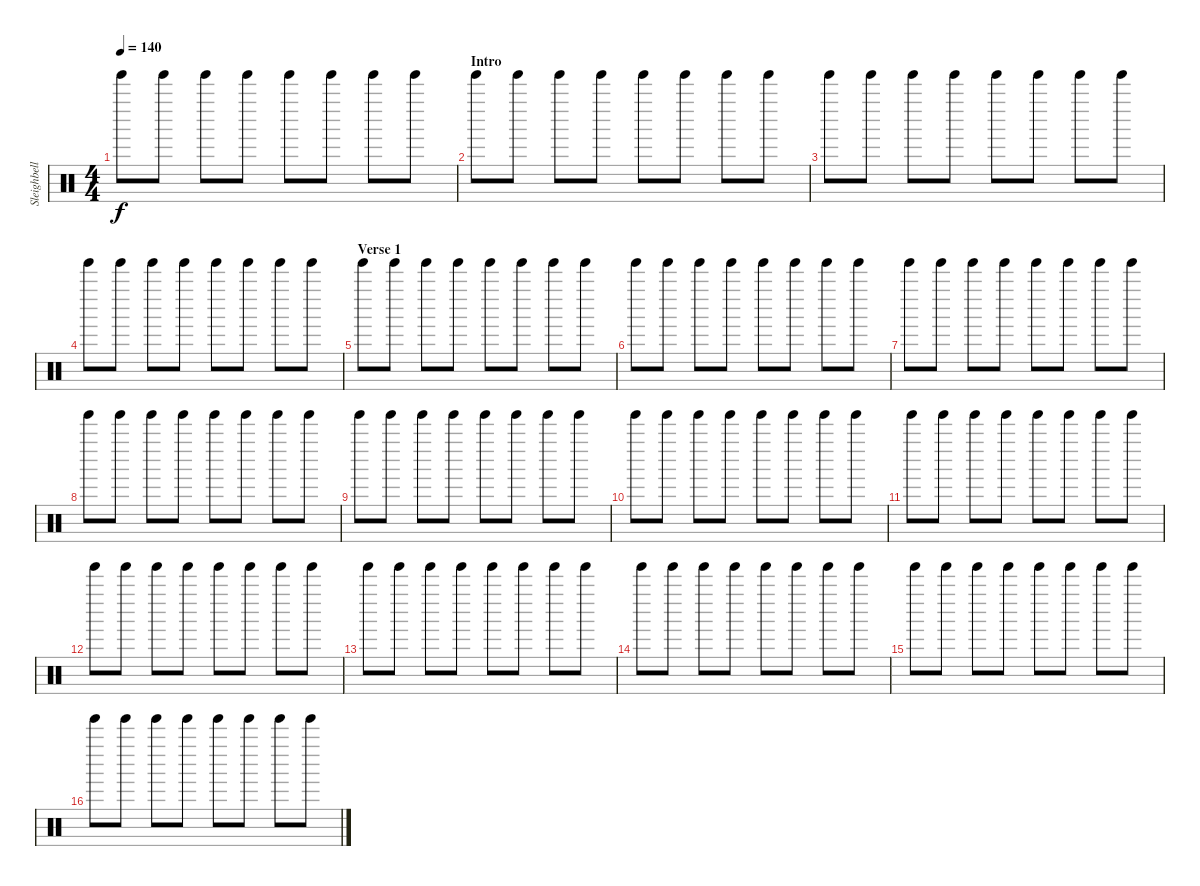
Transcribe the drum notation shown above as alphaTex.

\track ("Sleighbells" "Sleighbell") {instrument percussion}
\staff {score}
\articulation defaults
\ts (4 4)
\tempo 140
\clef neutral
\ks c "Tinkle Bell (hit)".8{dy f} "Tinkle Bell (hit)".8 "Tinkle Bell (hit)".8 "Tinkle Bell (hit)".8 "Tinkle Bell (hit)".8 "Tinkle Bell (hit)".8 "Tinkle Bell (hit)".8 "Tinkle Bell (hit)".8
|
\section ("" "Intro")
"Tinkle Bell (hit)".8 "Tinkle Bell (hit)".8 "Tinkle Bell (hit)".8 "Tinkle Bell (hit)".8 "Tinkle Bell (hit)".8 "Tinkle Bell (hit)".8 "Tinkle Bell (hit)".8 "Tinkle Bell (hit)".8 |
"Tinkle Bell (hit)".8 "Tinkle Bell (hit)".8 "Tinkle Bell (hit)".8 "Tinkle Bell (hit)".8 "Tinkle Bell (hit)".8 "Tinkle Bell (hit)".8 "Tinkle Bell (hit)".8 "Tinkle Bell (hit)".8 |
"Tinkle Bell (hit)".8 "Tinkle Bell (hit)".8 "Tinkle Bell (hit)".8 "Tinkle Bell (hit)".8 "Tinkle Bell (hit)".8 "Tinkle Bell (hit)".8 "Tinkle Bell (hit)".8 "Tinkle Bell (hit)".8 |
\section ("" "Verse 1")
"Tinkle Bell (hit)".8 "Tinkle Bell (hit)".8 "Tinkle Bell (hit)".8 "Tinkle Bell (hit)".8 "Tinkle Bell (hit)".8 "Tinkle Bell (hit)".8 "Tinkle Bell (hit)".8 "Tinkle Bell (hit)".8 |
"Tinkle Bell (hit)".8 "Tinkle Bell (hit)".8 "Tinkle Bell (hit)".8 "Tinkle Bell (hit)".8 "Tinkle Bell (hit)".8 "Tinkle Bell (hit)".8 "Tinkle Bell (hit)".8 "Tinkle Bell (hit)".8 |
"Tinkle Bell (hit)".8 "Tinkle Bell (hit)".8 "Tinkle Bell (hit)".8 "Tinkle Bell (hit)".8 "Tinkle Bell (hit)".8 "Tinkle Bell (hit)".8 "Tinkle Bell (hit)".8 "Tinkle Bell (hit)".8 |
"Tinkle Bell (hit)".8 "Tinkle Bell (hit)".8 "Tinkle Bell (hit)".8 "Tinkle Bell (hit)".8 "Tinkle Bell (hit)".8 "Tinkle Bell (hit)".8 "Tinkle Bell (hit)".8 "Tinkle Bell (hit)".8 |
"Tinkle Bell (hit)".8 "Tinkle Bell (hit)".8 "Tinkle Bell (hit)".8 "Tinkle Bell (hit)".8 "Tinkle Bell (hit)".8 "Tinkle Bell (hit)".8 "Tinkle Bell (hit)".8 "Tinkle Bell (hit)".8 |
"Tinkle Bell (hit)".8 "Tinkle Bell (hit)".8 "Tinkle Bell (hit)".8 "Tinkle Bell (hit)".8 "Tinkle Bell (hit)".8 "Tinkle Bell (hit)".8 "Tinkle Bell (hit)".8 "Tinkle Bell (hit)".8 |
"Tinkle Bell (hit)".8 "Tinkle Bell (hit)".8 "Tinkle Bell (hit)".8 "Tinkle Bell (hit)".8 "Tinkle Bell (hit)".8 "Tinkle Bell (hit)".8 "Tinkle Bell (hit)".8 "Tinkle Bell (hit)".8 |
"Tinkle Bell (hit)".8 "Tinkle Bell (hit)".8 "Tinkle Bell (hit)".8 "Tinkle Bell (hit)".8 "Tinkle Bell (hit)".8 "Tinkle Bell (hit)".8 "Tinkle Bell (hit)".8 "Tinkle Bell (hit)".8 |
"Tinkle Bell (hit)".8 "Tinkle Bell (hit)".8 "Tinkle Bell (hit)".8 "Tinkle Bell (hit)".8 "Tinkle Bell (hit)".8 "Tinkle Bell (hit)".8 "Tinkle Bell (hit)".8 "Tinkle Bell (hit)".8 |
"Tinkle Bell (hit)".8 "Tinkle Bell (hit)".8 "Tinkle Bell (hit)".8 "Tinkle Bell (hit)".8 "Tinkle Bell (hit)".8 "Tinkle Bell (hit)".8 "Tinkle Bell (hit)".8 "Tinkle Bell (hit)".8 |
"Tinkle Bell (hit)".8 "Tinkle Bell (hit)".8 "Tinkle Bell (hit)".8 "Tinkle Bell (hit)".8 "Tinkle Bell (hit)".8 "Tinkle Bell (hit)".8 "Tinkle Bell (hit)".8 "Tinkle Bell (hit)".8 |
"Tinkle Bell (hit)".8 "Tinkle Bell (hit)".8 "Tinkle Bell (hit)".8 "Tinkle Bell (hit)".8 "Tinkle Bell (hit)".8 "Tinkle Bell (hit)".8 "Tinkle Bell (hit)".8 "Tinkle Bell (hit)".8
